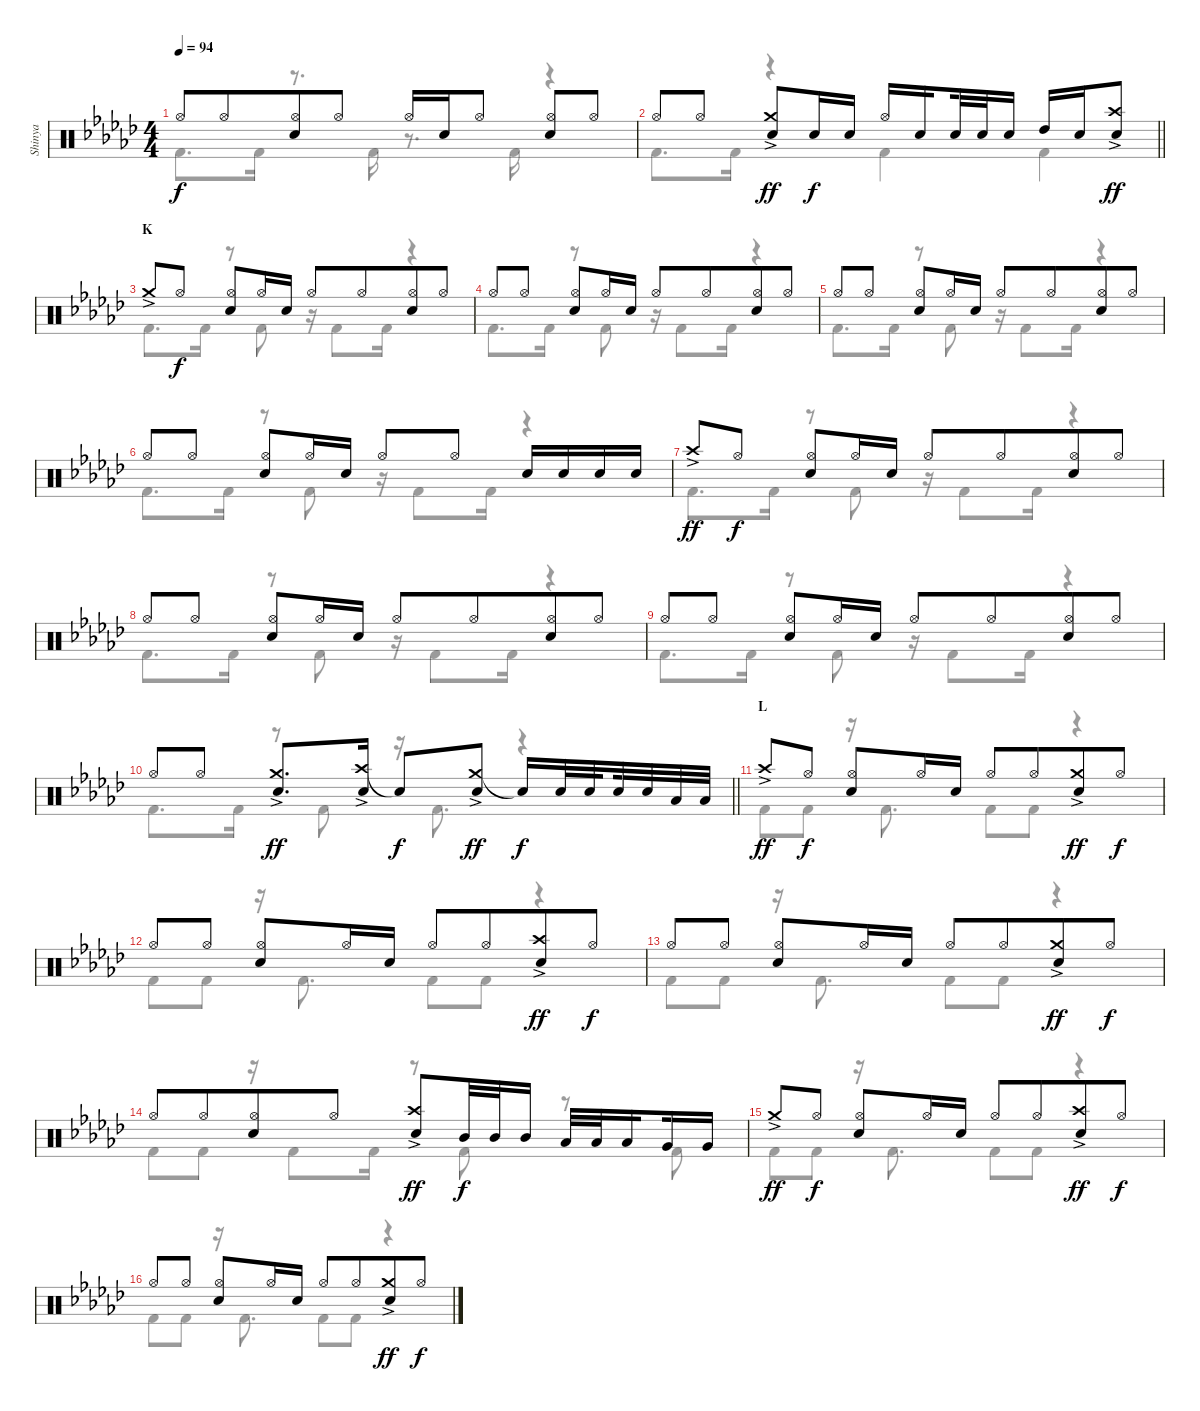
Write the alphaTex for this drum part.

\track ("Shinya" "Shinya") {instrument percussion}
\staff {score}
\articulation defaults
\voice
\ts (4 4)
\tempo 94
\clef neutral
\ks ebminor "Hi-Hat (open)".8{dy f} "Hi-Hat (open)".8{beam merge}
("Hi-Hat (open)" "Snare (hit) 2").8 "Hi-Hat (open)".8 "Hi-Hat (open)".16 "Snare (hit) 2".16 "Hi-Hat (open)".8 ("Hi-Hat (open)" "Snare (hit) 2").8 "Hi-Hat (open)".8 |
\barLineRight lightlight "Hi-Hat (open)".8 "Hi-Hat (open)".8
("Crash medium (hit)"{ac} "Snare (hit) 2").8{dy ff} "Snare (hit) 2".16{dy f} "Snare (hit) 2".16 "Hi-Hat (open)".16 "Snare (hit) 2".16{beam splitsecondary} "Snare (hit) 2".32 "Snare (hit) 2".32 "Snare (hit) 2".16 "High Tom (hit)".16 "Snare (hit) 2".16 ("Crash high (hit)"{ac} "Snare (hit) 2").8{dy ff} |
\section ("" "K")
"Crash medium (hit)"{ac}.8 "Hi-Hat (open)".8{dy f} ("Hi-Hat (open)" "Snare (hit) 2").8 "Hi-Hat (open)".16 "Snare (hit) 2".16 "Hi-Hat (open)".8 "Hi-Hat (open)".8{beam merge} ("Hi-Hat (open)" "Snare (hit) 2").8 "Hi-Hat (open)".8 |
"Hi-Hat (open)".8 "Hi-Hat (open)".8 ("Hi-Hat (open)" "Snare (hit) 2").8 "Hi-Hat (open)".16 "Snare (hit) 2".16 "Hi-Hat (open)".8 "Hi-Hat (open)".8{beam merge} ("Hi-Hat (open)" "Snare (hit) 2").8 "Hi-Hat (open)".8 |
"Hi-Hat (open)".8 "Hi-Hat (open)".8 ("Hi-Hat (open)" "Snare (hit) 2").8 "Hi-Hat (open)".16 "Snare (hit) 2".16 "Hi-Hat (open)".8 "Hi-Hat (open)".8{beam merge} ("Hi-Hat (open)" "Snare (hit) 2").8 "Hi-Hat (open)".8 |
"Hi-Hat (open)".8 "Hi-Hat (open)".8 ("Hi-Hat (open)" "Snare (hit) 2").8 "Hi-Hat (open)".16 "Snare (hit) 2".16 "Hi-Hat (open)".8 "Hi-Hat (open)".8 "Snare (hit) 2".16 "Snare (hit) 2".16 "Snare (hit) 2".16 "Snare (hit) 2".16 |
"Crash high (hit)"{ac}.8{dy ff} "Hi-Hat (open)".8{dy f} ("Hi-Hat (open)" "Snare (hit) 2").8 "Hi-Hat (open)".16 "Snare (hit) 2".16 "Hi-Hat (open)".8 "Hi-Hat (open)".8{beam merge} ("Hi-Hat (open)" "Snare (hit) 2").8 "Hi-Hat (open)".8 |
"Hi-Hat (open)".8 "Hi-Hat (open)".8 ("Hi-Hat (open)" "Snare (hit) 2").8 "Hi-Hat (open)".16 "Snare (hit) 2".16 "Hi-Hat (open)".8 "Hi-Hat (open)".8{beam merge} ("Hi-Hat (open)" "Snare (hit) 2").8 "Hi-Hat (open)".8 |
"Hi-Hat (open)".8 "Hi-Hat (open)".8 ("Hi-Hat (open)" "Snare (hit) 2").8 "Hi-Hat (open)".16 "Snare (hit) 2".16 "Hi-Hat (open)".8 "Hi-Hat (open)".8{beam merge} ("Hi-Hat (open)" "Snare (hit) 2").8 "Hi-Hat (open)".8 |
\barLineRight lightlight "Hi-Hat (open)".8 "Hi-Hat (open)".8
("Crash medium (hit)"{ac} "Snare (hit) 2").8{d dy ff} ("Crash high (hit)"{ac} "Snare (hit) 2").16 "Snare (hit)"{t}.8{dy f} ("Crash medium (hit)"{ac} "Snare (hit) 2").8{dy ff} "Snare (hit)"{t}.16{dy f} "Snare (hit) 2".32 "Snare (hit) 2".32{beam splitsecondary} "Snare (hit) 2".32 "Snare (hit) 2".32 "Low Tom (hit)".32 "Low Tom (hit)".32 |
\section ("" "L")
"Crash high (hit)"{ac}.8{dy ff} "Hi-Hat (open)".8{dy f} ("Hi-Hat (open)" "Snare (hit) 2").8 "Hi-Hat (open)".16 "Snare (hit) 2".16 "Hi-Hat (open)".8 "Hi-Hat (open)".8{beam merge} ("Crash medium (hit)"{ac} "Snare (hit) 2").8{dy ff} "Hi-Hat (open)".8{dy f} |
"Hi-Hat (open)".8 "Hi-Hat (open)".8 ("Hi-Hat (open)" "Snare (hit) 2").8 "Hi-Hat (open)".16 "Snare (hit) 2".16 "Hi-Hat (open)".8 "Hi-Hat (open)".8{beam merge} ("Crash high (hit)"{ac} "Snare (hit) 2").8{dy ff} "Hi-Hat (open)".8{dy f} |
"Hi-Hat (open)".8 "Hi-Hat (open)".8 ("Hi-Hat (open)" "Snare (hit) 2").8 "Hi-Hat (open)".16 "Snare (hit) 2".16 "Hi-Hat (open)".8 "Hi-Hat (open)".8{beam merge} ("Crash medium (hit)"{ac} "Snare (hit) 2").8{dy ff} "Hi-Hat (open)".8{dy f} |
"Hi-Hat (open)".8 "Hi-Hat (open)".8{beam merge} ("Hi-Hat (open)" "Snare (hit) 2").8 "Hi-Hat (open)".8 ("Crash high (hit)"{ac} "Snare (hit) 2").8{dy ff} "Mid Tom (hit)".32{dy f} "Mid Tom (hit)".32 "Mid Tom (hit)".16 "Low Tom (hit)".32 "Low Tom (hit)".32 "Low Tom (hit)".16{beam splitsecondary} "Very Low Tom (hit)".16 "Very Low Tom (hit)".16 |
"Crash medium (hit)"{ac}.8{dy ff} "Hi-Hat (open)".8{dy f} ("Hi-Hat (open)" "Snare (hit) 2").8 "Hi-Hat (open)".16 "Snare (hit) 2".16 "Hi-Hat (open)".8 "Hi-Hat (open)".8{beam merge} ("Crash high (hit)"{ac} "Snare (hit) 2").8{dy ff} "Hi-Hat (open)".8{dy f} |
"Hi-Hat (open)".8 "Hi-Hat (open)".8 ("Hi-Hat (open)" "Snare (hit) 2").8 "Hi-Hat (open)".16 "Snare (hit) 2".16 "Hi-Hat (open)".8 "Hi-Hat (open)".8{beam merge} ("Crash medium (hit)"{ac} "Snare (hit) 2").8{dy ff} "Hi-Hat (open)".8{dy f}
\voice
\clef neutral
\ottava regular
\simile none
\ks ebminor "Kick (hit) 2".8{d dy f} "Kick (hit) 2".16
r.8{d} "Kick (hit) 2".16 r.8{d} "Kick (hit) 2".16 r.4 |
\barLineRight lightlight "Kick (hit) 2".8{d} "Kick (hit) 2".16
r.4 "Kick (hit) 2".4 "Kick (hit) 2".4 |
"Kick (hit) 2".8{d} "Kick (hit) 2".16 r.8 "Kick (hit) 2".8 r.16 "Kick (hit) 2".8 "Kick (hit) 2".16 r.4 |
"Kick (hit) 2".8{d} "Kick (hit) 2".16 r.8 "Kick (hit) 2".8 r.16 "Kick (hit) 2".8 "Kick (hit) 2".16 r.4 |
"Kick (hit) 2".8{d} "Kick (hit) 2".16 r.8 "Kick (hit) 2".8 r.16 "Kick (hit) 2".8 "Kick (hit) 2".16 r.4 |
"Kick (hit) 2".8{d} "Kick (hit) 2".16 r.8 "Kick (hit) 2".8 r.16 "Kick (hit) 2".8 "Kick (hit) 2".16 r.4 |
"Kick (hit) 2".8{d} "Kick (hit) 2".16 r.8 "Kick (hit) 2".8 r.16 "Kick (hit) 2".8 "Kick (hit) 2".16 r.4 |
"Kick (hit) 2".8{d} "Kick (hit) 2".16 r.8 "Kick (hit) 2".8 r.16 "Kick (hit) 2".8 "Kick (hit) 2".16 r.4 |
"Kick (hit) 2".8{d} "Kick (hit) 2".16 r.8 "Kick (hit) 2".8 r.16 "Kick (hit) 2".8 "Kick (hit) 2".16 r.4 |
\barLineRight lightlight "Kick (hit) 2".8{d} "Kick (hit) 2".16
r.8 "Kick (hit) 2".8 r.16 "Kick (hit) 2".8{d} r.4 |
"Kick (hit) 2".8 "Kick (hit) 2".8 r.16 "Kick (hit) 2".8{d} "Kick (hit) 2".8 "Kick (hit) 2".8 r.4 |
"Kick (hit) 2".8 "Kick (hit) 2".8 r.16 "Kick (hit) 2".8{d} "Kick (hit) 2".8 "Kick (hit) 2".8 r.4 |
"Kick (hit) 2".8 "Kick (hit) 2".8 r.16 "Kick (hit) 2".8{d} "Kick (hit) 2".8 "Kick (hit) 2".8 r.4 |
"Kick (hit) 2".8 "Kick (hit) 2".8 r.16 "Kick (hit) 2".8 "Kick (hit) 2".16 r.8 "Kick (hit) 2".8 r.8 "Kick (hit) 2".8 |
"Kick (hit) 2".8 "Kick (hit) 2".8 r.16 "Kick (hit) 2".8{d} "Kick (hit) 2".8 "Kick (hit) 2".8 r.4 |
"Kick (hit) 2".8 "Kick (hit) 2".8 r.16 "Kick (hit) 2".8{d} "Kick (hit) 2".8 "Kick (hit) 2".8 r.4
